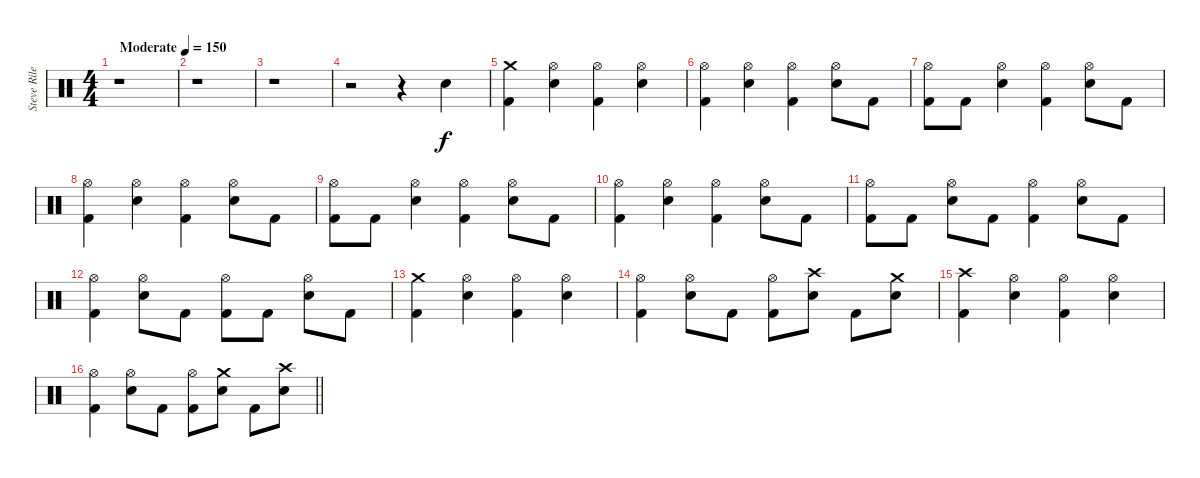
\track ("Steve Riley" "Steve Rile") {instrument percussion}
\staff {score}
\articulation defaults
\ts (4 4)
\tempo (150 "Moderate")
\clef neutral
\ks c
r.1{dy f} |
r.1 |
r.1 |
r.2 r.4 "Snare (hit) 2".4 |
("Crash medium (hit)" "Kick (hit) 2").4 ("Hi-Hat (open)" "Snare (hit) 2").4 ("Hi-Hat (open)" "Kick (hit) 2").4 ("Hi-Hat (open)" "Snare (hit) 2").4 |
("Hi-Hat (open)" "Kick (hit) 2").4 ("Hi-Hat (open)" "Snare (hit) 2").4 ("Hi-Hat (open)" "Kick (hit) 2").4 ("Hi-Hat (open)" "Snare (hit) 2").8 "Kick (hit) 2".8 |
("Hi-Hat (open)" "Kick (hit) 2").8 "Kick (hit) 2".8 ("Hi-Hat (open)" "Snare (hit) 2").4 ("Hi-Hat (open)" "Kick (hit) 2").4 ("Hi-Hat (open)" "Snare (hit) 2").8 "Kick (hit) 2".8 |
("Hi-Hat (open)" "Kick (hit) 2").4 ("Hi-Hat (open)" "Snare (hit) 2").4 ("Hi-Hat (open)" "Kick (hit) 2").4 ("Hi-Hat (open)" "Snare (hit) 2").8 "Kick (hit) 2".8 |
("Hi-Hat (open)" "Kick (hit) 2").8 "Kick (hit) 2".8 ("Hi-Hat (open)" "Snare (hit) 2").4 ("Hi-Hat (open)" "Kick (hit) 2").4 ("Hi-Hat (open)" "Snare (hit) 2").8 "Kick (hit) 2".8 |
("Hi-Hat (open)" "Kick (hit) 2").4 ("Hi-Hat (open)" "Snare (hit) 2").4 ("Hi-Hat (open)" "Kick (hit) 2").4 ("Hi-Hat (open)" "Snare (hit) 2").8 "Kick (hit) 2".8 |
("Hi-Hat (open)" "Kick (hit) 2").8 "Kick (hit) 2".8 ("Hi-Hat (open)" "Snare (hit) 2").8 "Kick (hit) 2".8 ("Hi-Hat (open)" "Kick (hit) 2").4 ("Hi-Hat (open)" "Snare (hit) 2").8 "Kick (hit) 2".8 |
("Hi-Hat (open)" "Kick (hit) 2").4 ("Hi-Hat (open)" "Snare (hit) 2").8 "Kick (hit) 2".8 ("Hi-Hat (open)" "Kick (hit) 2").8 "Kick (hit) 2".8 ("Hi-Hat (open)" "Snare (hit) 2").8 "Kick (hit) 2".8 |
("Crash medium (hit)" "Kick (hit) 2").4 ("Hi-Hat (open)" "Snare (hit) 2").4 ("Hi-Hat (open)" "Kick (hit) 2").4 ("Hi-Hat (open)" "Snare (hit) 2").4 |
("Hi-Hat (open)" "Kick (hit) 2").4 ("Hi-Hat (open)" "Snare (hit) 2").8 "Kick (hit) 2".8 ("Hi-Hat (open)" "Kick (hit) 2").8 ("Crash high (hit)" "Snare (hit) 2").8 "Kick (hit) 2".8 ("Crash medium (hit)" "Snare (hit) 2").8 |
("Crash high (hit)" "Kick (hit) 2").4 ("Hi-Hat (open)" "Snare (hit) 2").4 ("Hi-Hat (open)" "Kick (hit) 2").4 ("Hi-Hat (open)" "Snare (hit) 2").4 |
\barLineRight lightlight
("Hi-Hat (open)" "Kick (hit) 2").4 ("Hi-Hat (open)" "Snare (hit) 2").8 "Kick (hit) 2".8 ("Hi-Hat (open)" "Kick (hit) 2").8 ("Crash medium (hit)" "Snare (hit) 2").8 "Kick (hit) 2".8 ("Crash high (hit)" "Snare (hit) 2").8
